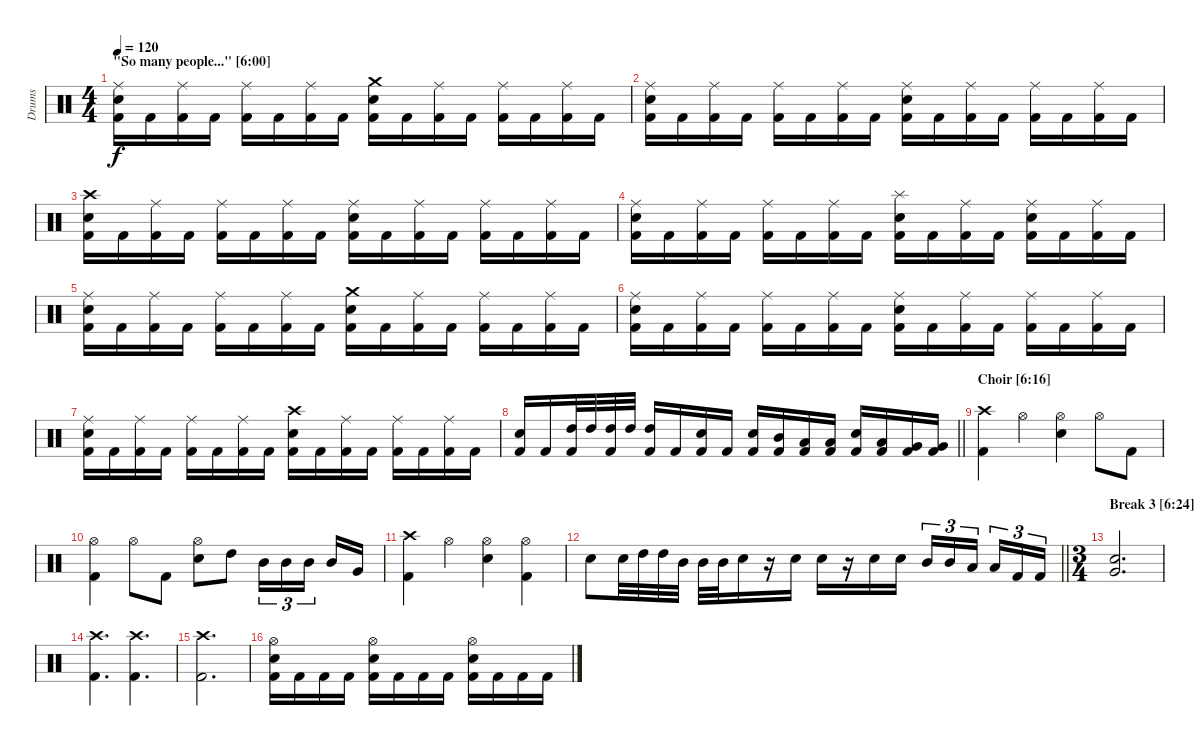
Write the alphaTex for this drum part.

\track ("Drums" "Drums") {instrument percussion}
\staff {score}
\articulation defaults
\ts (4 4)
\section ("" "\"So many people...\" [6:00]")
\tempo 120
\clef neutral
\ks c
("Ride (middle)" "Snare (hit) 2" "Kick (hit) 2").16{dy f} "Kick (hit) 2".16 ("Ride (middle)" "Kick (hit) 2").16 "Kick (hit) 2".16 ("Ride (middle)" "Kick (hit) 2").16 "Kick (hit) 2".16 ("Ride (middle)" "Kick (hit) 2").16 "Kick (hit) 2".16 ("Crash medium (hit)" "Snare (hit) 2" "Kick (hit) 2").16 "Kick (hit) 2".16 ("Ride (middle)" "Kick (hit) 2").16 "Kick (hit) 2".16 ("Ride (middle)" "Kick (hit) 2").16 "Kick (hit) 2".16 ("Ride (middle)" "Kick (hit) 2").16 "Kick (hit) 2".16 |
("Ride (middle)" "Snare (hit) 2" "Kick (hit) 2").16 "Kick (hit) 2".16 ("Ride (middle)" "Kick (hit) 2").16 "Kick (hit) 2".16 ("Ride (middle)" "Kick (hit) 2").16 "Kick (hit) 2".16 ("Ride (middle)" "Kick (hit) 2").16 "Kick (hit) 2".16 ("Ride (middle)" "Snare (hit) 2" "Kick (hit) 2").16 "Kick (hit) 2".16 ("Ride (middle)" "Kick (hit) 2").16 "Kick (hit) 2".16 ("Ride (middle)" "Kick (hit) 2").16 "Kick (hit) 2".16 ("Ride (middle)" "Kick (hit) 2").16 "Kick (hit) 2".16 |
("Crash high (hit)" "Snare (hit) 2" "Kick (hit) 2").16 "Kick (hit) 2".16 ("Ride (middle)" "Kick (hit) 2").16 "Kick (hit) 2".16 ("Ride (middle)" "Kick (hit) 2").16 "Kick (hit) 2".16 ("Ride (middle)" "Kick (hit) 2").16 "Kick (hit) 2".16 ("Ride (middle)" "Snare (hit) 2" "Kick (hit) 2").16 "Kick (hit) 2".16 ("Ride (middle)" "Kick (hit) 2").16 "Kick (hit) 2".16 ("Ride (middle)" "Kick (hit) 2").16 "Kick (hit) 2".16 ("Ride (middle)" "Kick (hit) 2").16 "Kick (hit) 2".16 |
("Ride (middle)" "Snare (hit) 2" "Kick (hit) 2").16 "Kick (hit) 2".16 ("Ride (middle)" "Kick (hit) 2").16 "Kick (hit) 2".16 ("Ride (middle)" "Kick (hit) 2").16 "Kick (hit) 2".16 ("Ride (middle)" "Kick (hit) 2").16 "Kick (hit) 2".16 ("Splash (hit)" "Snare (hit) 2" "Kick (hit) 2").16 "Kick (hit) 2".16 ("Ride (middle)" "Kick (hit) 2").16 "Kick (hit) 2".16 ("Ride (middle)" "Snare (hit) 2" "Kick (hit) 2").16 "Kick (hit) 2".16 ("Ride (middle)" "Kick (hit) 2").16 "Kick (hit) 2".16 |
("Ride (middle)" "Snare (hit) 2" "Kick (hit) 2").16 "Kick (hit) 2".16 ("Ride (middle)" "Kick (hit) 2").16 "Kick (hit) 2".16 ("Ride (middle)" "Kick (hit) 2").16 "Kick (hit) 2".16 ("Ride (middle)" "Kick (hit) 2").16 "Kick (hit) 2".16 ("Crash medium (hit)" "Snare (hit) 2" "Kick (hit) 2").16 "Kick (hit) 2".16 ("Ride (middle)" "Kick (hit) 2").16 "Kick (hit) 2".16 ("Ride (middle)" "Kick (hit) 2").16 "Kick (hit) 2".16 ("Ride (middle)" "Kick (hit) 2").16 "Kick (hit) 2".16 |
("Ride (middle)" "Snare (hit) 2" "Kick (hit) 2").16 "Kick (hit) 2".16 ("Ride (middle)" "Kick (hit) 2").16 "Kick (hit) 2".16 ("Ride (middle)" "Kick (hit) 2").16 "Kick (hit) 2".16 ("Ride (middle)" "Kick (hit) 2").16 "Kick (hit) 2".16 ("Ride (middle)" "Snare (hit) 2" "Kick (hit) 2").16 "Kick (hit) 2".16 ("Ride (middle)" "Kick (hit) 2").16 "Kick (hit) 2".16 ("Ride (middle)" "Kick (hit) 2").16 "Kick (hit) 2".16 ("Ride (middle)" "Kick (hit) 2").16 "Kick (hit) 2".16 |
("Ride (middle)" "Snare (hit) 2" "Kick (hit) 2").16 "Kick (hit) 2".16 ("Ride (middle)" "Kick (hit) 2").16 "Kick (hit) 2".16 ("Ride (middle)" "Kick (hit) 2").16 "Kick (hit) 2".16 ("Ride (middle)" "Kick (hit) 2").16 "Kick (hit) 2".16 ("Crash high (hit)" "Snare (hit) 2" "Kick (hit) 2").16 "Kick (hit) 2".16 ("Ride (middle)" "Kick (hit) 2").16 "Kick (hit) 2".16 ("Ride (middle)" "Kick (hit) 2").16 "Kick (hit) 2".16 ("Ride (middle)" "Kick (hit) 2").16 "Kick (hit) 2".16 |
\barLineRight lightlight
("Snare (hit) 2" "Kick (hit) 2").16 "Kick (hit) 2".16 ("High Tom (hit)" "Kick (hit) 2").32 "High Tom (hit)".32 ("High Tom (hit)" "Kick (hit) 2").32 "High Tom (hit)".32 ("High Tom (hit)" "Kick (hit) 2").16 "Kick (hit) 2".16 ("Snare (hit) 2" "Kick (hit) 2").16 "Kick (hit) 2".16 ("Snare (hit) 2" "Kick (hit) 2").16 ("Mid Tom (hit)" "Kick (hit) 2").16 ("Low Tom (hit)" "Kick (hit) 2").16 ("Low Tom (hit)" "Kick (hit) 2").16 ("Snare (hit) 2" "Kick (hit) 2").16 ("Low Tom (hit)" "Kick (hit) 2").16 ("Very Low Tom (hit)" "Kick (hit) 2").16 ("Very Low Tom (hit)" "Kick (hit) 2").16 |
\section ("" "Choir [6:16]")
("Crash high (hit)" "Kick (hit) 2").4 "Hi-Hat (open)".4 ("Hi-Hat (open)" "Snare (hit) 2").4 "Hi-Hat (open)".8 "Kick (hit) 2".8 |
("Hi-Hat (open)" "Kick (hit) 2").4 "Hi-Hat (open)".8 "Kick (hit) 2".8 ("Hi-Hat (open)" "Snare (hit) 2").8 "High Tom (hit)".8 "Mid Tom (hit)".16{tu (3 2)} "Mid Tom (hit)".16{tu (3 2)} "Mid Tom (hit)".16{tu (3 2) beam splitsecondary} "Mid Tom (hit)".16 "Very Low Tom (hit)".16 |
("Crash high (hit)" "Kick (hit) 2").4 "Hi-Hat (open)".4 ("Hi-Hat (open)" "Snare (hit) 2").4 ("Hi-Hat (open)" "Kick (hit) 2").4 |
\barLineRight lightlight "Snare (hit) 2".8 "Snare (hit) 2".32 "High Tom (hit)".32 "High Tom (hit)".32 "Mid Tom (hit)".32 "Mid Tom (hit)".32 "Mid Tom (hit)".32 "Snare (hit) 2".16
r.16 "Snare (hit) 2".16 "Snare (hit) 2".16 r.16 "Snare (hit) 2".16 "Snare (hit) 2".16 "Mid Tom (hit)".16{tu (3 2)} "Mid Tom (hit)".16{tu (3 2)} "Low Tom (hit)".16{tu (3 2) beam splitsecondary} "Low Tom (hit)".16{tu (3 2)} "Kick (hit) 2".16{tu (3 2)} "Kick (hit) 2".16{tu (3 2)} |
\ts (3 4)
\section ("" "Break 3 [6:24]")
("Very Low Tom (hit)" "Snare (hit) 2").2{d} |
("Crash high (hit)" "Kick (hit) 2").4{d} ("Crash high (hit)" "Kick (hit) 2").4{d} |
("Crash high (hit)" "Kick (hit) 2").2{d} |
("Hi-Hat (open)" "Snare (hit) 2" "Kick (hit) 2").16 "Kick (hit) 2".16 "Kick (hit) 2".16 "Kick (hit) 2".16 ("Hi-Hat (open)" "Snare (hit) 2" "Kick (hit) 2").16 "Kick (hit) 2".16 "Kick (hit) 2".16 "Kick (hit) 2".16 ("Hi-Hat (open)" "Snare (hit) 2" "Kick (hit) 2").16 "Kick (hit) 2".16 "Kick (hit) 2".16 "Kick (hit) 2".16
